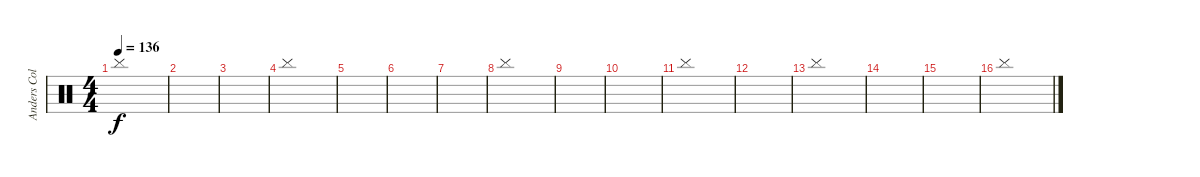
\track ("Anders Colsefini" "Anders Col") {instrument percussion}
\staff {score}
\articulation defaults
\ts (4 4)
\tempo 136
\clef neutral
\ks c "Cymbal (hit)".1{dy f}
|
|
|
"Cymbal (hit)".1 |
|
|
|
"Cymbal (hit)".1 |
|
|
"Cymbal (hit)".1 |
|
"Cymbal (hit)".1 |
|
|
"Cymbal (hit)".1
